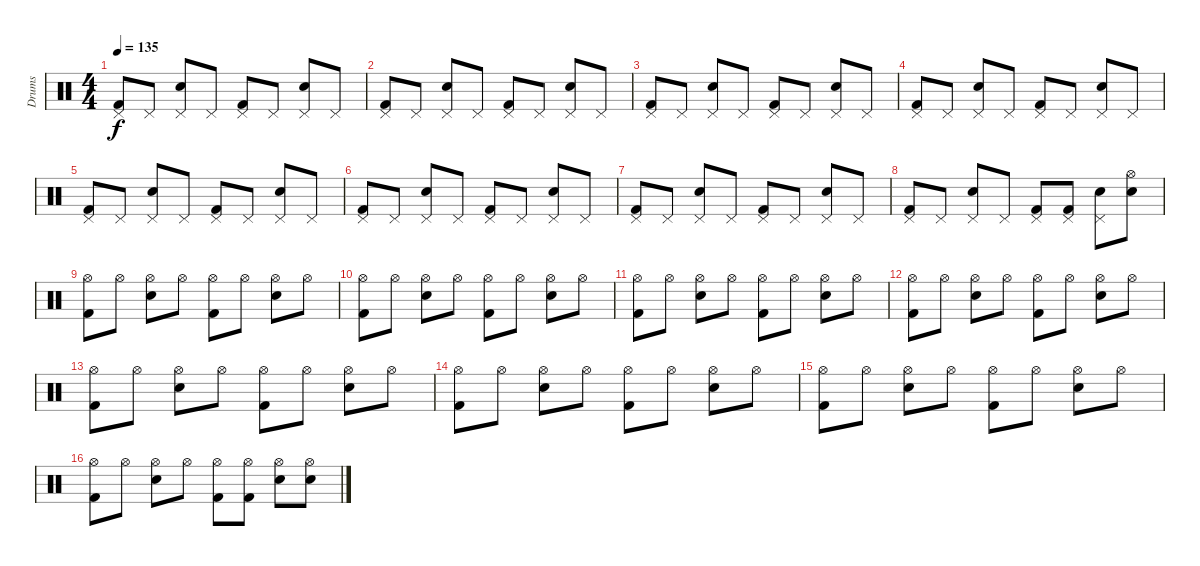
\track ("Drums" "Drums") {instrument percussion}
\staff {score}
\articulation defaults
\ts (4 4)
\tempo 135
\clef neutral
\ks c
("Pedal Hi-Hat (hit)" "Kick (hit) 2").8{dy f} "Pedal Hi-Hat (hit)".8 ("Pedal Hi-Hat (hit)" "Snare (hit) 2").8 "Pedal Hi-Hat (hit)".8 ("Pedal Hi-Hat (hit)" "Kick (hit) 2").8 "Pedal Hi-Hat (hit)".8 ("Pedal Hi-Hat (hit)" "Snare (hit) 2").8 "Pedal Hi-Hat (hit)".8 |
("Pedal Hi-Hat (hit)" "Kick (hit) 2").8 "Pedal Hi-Hat (hit)".8 ("Pedal Hi-Hat (hit)" "Snare (hit) 2").8 "Pedal Hi-Hat (hit)".8 ("Pedal Hi-Hat (hit)" "Kick (hit) 2").8 "Pedal Hi-Hat (hit)".8 ("Pedal Hi-Hat (hit)" "Snare (hit) 2").8 "Pedal Hi-Hat (hit)".8 |
("Pedal Hi-Hat (hit)" "Kick (hit) 2").8 "Pedal Hi-Hat (hit)".8 ("Pedal Hi-Hat (hit)" "Snare (hit) 2").8 "Pedal Hi-Hat (hit)".8 ("Pedal Hi-Hat (hit)" "Kick (hit) 2").8 "Pedal Hi-Hat (hit)".8 ("Pedal Hi-Hat (hit)" "Snare (hit) 2").8 "Pedal Hi-Hat (hit)".8 |
("Pedal Hi-Hat (hit)" "Kick (hit) 2").8 "Pedal Hi-Hat (hit)".8 ("Pedal Hi-Hat (hit)" "Snare (hit) 2").8 "Pedal Hi-Hat (hit)".8 ("Pedal Hi-Hat (hit)" "Kick (hit) 2").8 "Pedal Hi-Hat (hit)".8 ("Pedal Hi-Hat (hit)" "Snare (hit) 2").8 "Pedal Hi-Hat (hit)".8 |
("Pedal Hi-Hat (hit)" "Kick (hit) 2").8 "Pedal Hi-Hat (hit)".8 ("Pedal Hi-Hat (hit)" "Snare (hit) 2").8 "Pedal Hi-Hat (hit)".8 ("Pedal Hi-Hat (hit)" "Kick (hit) 2").8 "Pedal Hi-Hat (hit)".8 ("Pedal Hi-Hat (hit)" "Snare (hit) 2").8 "Pedal Hi-Hat (hit)".8 |
("Pedal Hi-Hat (hit)" "Kick (hit) 2").8 "Pedal Hi-Hat (hit)".8 ("Pedal Hi-Hat (hit)" "Snare (hit) 2").8 "Pedal Hi-Hat (hit)".8 ("Pedal Hi-Hat (hit)" "Kick (hit) 2").8 "Pedal Hi-Hat (hit)".8 ("Pedal Hi-Hat (hit)" "Snare (hit) 2").8 "Pedal Hi-Hat (hit)".8 |
("Pedal Hi-Hat (hit)" "Kick (hit) 2").8 "Pedal Hi-Hat (hit)".8 ("Pedal Hi-Hat (hit)" "Snare (hit) 2").8 "Pedal Hi-Hat (hit)".8 ("Pedal Hi-Hat (hit)" "Kick (hit) 2").8 "Pedal Hi-Hat (hit)".8 ("Pedal Hi-Hat (hit)" "Snare (hit) 2").8 "Pedal Hi-Hat (hit)".8 |
("Pedal Hi-Hat (hit)" "Kick (hit) 2").8 "Pedal Hi-Hat (hit)".8 ("Pedal Hi-Hat (hit)" "Snare (hit) 2").8 "Pedal Hi-Hat (hit)".8 ("Pedal Hi-Hat (hit)" "Kick (hit) 2").8 ("Pedal Hi-Hat (hit)" "Kick (hit) 2").8 ("Pedal Hi-Hat (hit)" "Snare (hit) 2").8 ("Hi-Hat (open)" "Snare (hit) 2").8 |
("Hi-Hat (open)" "Kick (hit) 2").8 "Hi-Hat (open)".8 ("Hi-Hat (open)" "Snare (hit) 2").8 "Hi-Hat (open)".8 ("Hi-Hat (open)" "Kick (hit) 2").8 "Hi-Hat (open)".8 ("Hi-Hat (open)" "Snare (hit) 2").8 "Hi-Hat (open)".8 |
("Hi-Hat (open)" "Kick (hit) 2").8 "Hi-Hat (open)".8 ("Hi-Hat (open)" "Snare (hit) 2").8 "Hi-Hat (open)".8 ("Hi-Hat (open)" "Kick (hit) 2").8 "Hi-Hat (open)".8 ("Hi-Hat (open)" "Snare (hit) 2").8 "Hi-Hat (open)".8 |
("Hi-Hat (open)" "Kick (hit) 2").8 "Hi-Hat (open)".8 ("Hi-Hat (open)" "Snare (hit) 2").8 "Hi-Hat (open)".8 ("Hi-Hat (open)" "Kick (hit) 2").8 "Hi-Hat (open)".8 ("Hi-Hat (open)" "Snare (hit) 2").8 "Hi-Hat (open)".8 |
("Hi-Hat (open)" "Kick (hit) 2").8 "Hi-Hat (open)".8 ("Hi-Hat (open)" "Snare (hit) 2").8 "Hi-Hat (open)".8 ("Hi-Hat (open)" "Kick (hit) 2").8 "Hi-Hat (open)".8 ("Hi-Hat (open)" "Snare (hit) 2").8 "Hi-Hat (open)".8 |
("Hi-Hat (open)" "Kick (hit) 2").8 "Hi-Hat (open)".8 ("Hi-Hat (open)" "Snare (hit) 2").8 "Hi-Hat (open)".8 ("Hi-Hat (open)" "Kick (hit) 2").8 "Hi-Hat (open)".8 ("Hi-Hat (open)" "Snare (hit) 2").8 "Hi-Hat (open)".8 |
("Hi-Hat (open)" "Kick (hit) 2").8 "Hi-Hat (open)".8 ("Hi-Hat (open)" "Snare (hit) 2").8 "Hi-Hat (open)".8 ("Hi-Hat (open)" "Kick (hit) 2").8 "Hi-Hat (open)".8 ("Hi-Hat (open)" "Snare (hit) 2").8 "Hi-Hat (open)".8 |
("Hi-Hat (open)" "Kick (hit) 2").8 "Hi-Hat (open)".8 ("Hi-Hat (open)" "Snare (hit) 2").8 "Hi-Hat (open)".8 ("Hi-Hat (open)" "Kick (hit) 2").8 "Hi-Hat (open)".8 ("Hi-Hat (open)" "Snare (hit) 2").8 "Hi-Hat (open)".8 |
("Hi-Hat (open)" "Kick (hit) 2").8 "Hi-Hat (open)".8 ("Hi-Hat (open)" "Snare (hit) 2").8 "Hi-Hat (open)".8 ("Hi-Hat (open)" "Kick (hit) 2").8 ("Hi-Hat (open)" "Kick (hit) 2").8 ("Hi-Hat (open)" "Snare (hit) 2").8 ("Hi-Hat (open)" "Snare (hit) 2").8
